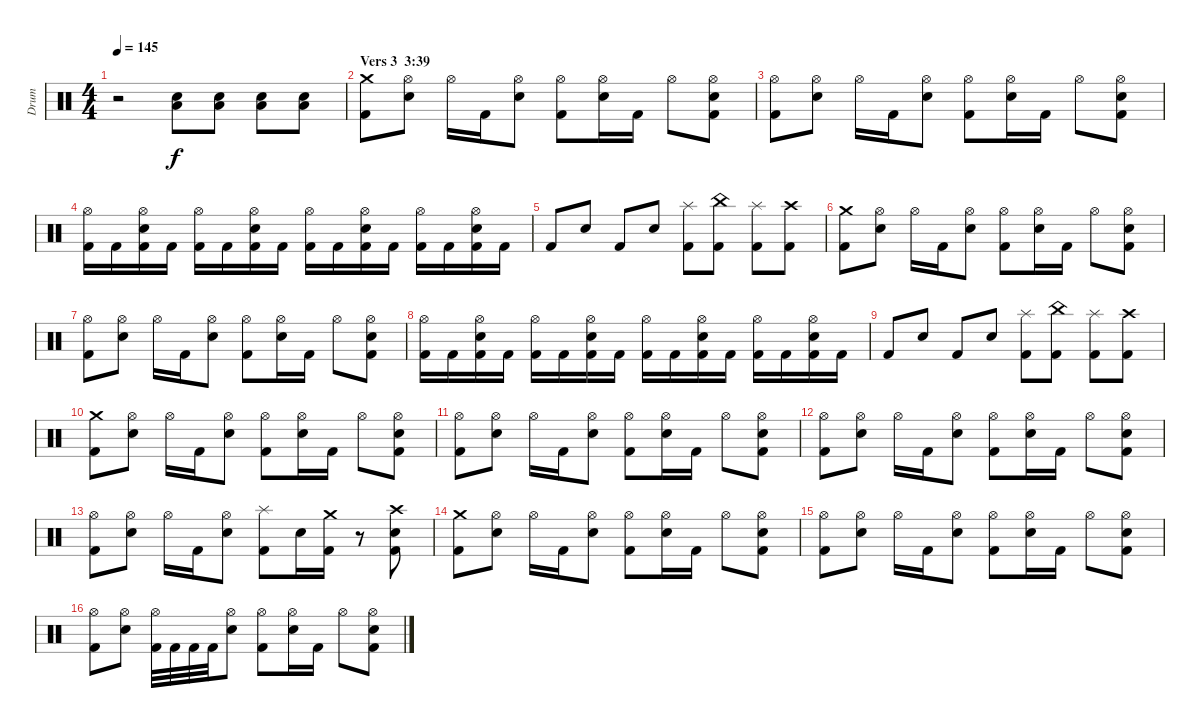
\track ("Drum" "Drum") {instrument percussion}
\staff {score}
\articulation defaults
\ts (4 4)
\tempo 145
\clef neutral
\ks c
r.2{dy f} ("Low Floor Tom (hit)" "Snare (hit) 2").8 ("Low Floor Tom (hit)" "Snare (hit) 2").8 ("Low Floor Tom (hit)" "Snare (hit) 2").8 ("Low Floor Tom (hit)" "Snare (hit) 2").8 |
\section ("" "Vers 3  3:39")
("Crash medium (hit)" "Kick (hit) 2").8 ("Hi-Hat (open)" "Snare (hit) 2").8 "Hi-Hat (open)".16 "Kick (hit) 2".16 ("Hi-Hat (open)" "Snare (hit) 2").8 ("Hi-Hat (open)" "Kick (hit) 2").8 ("Hi-Hat (open)" "Snare (hit) 2").16 "Kick (hit) 2".16 "Hi-Hat (open)".8 ("Hi-Hat (open)" "Snare (hit) 2" "Kick (hit) 2").8 |
("Hi-Hat (open)" "Kick (hit) 2").8 ("Hi-Hat (open)" "Snare (hit) 2").8 "Hi-Hat (open)".16 "Kick (hit) 2".16 ("Hi-Hat (open)" "Snare (hit) 2").8 ("Hi-Hat (open)" "Kick (hit) 2").8 ("Hi-Hat (open)" "Snare (hit) 2").16 "Kick (hit) 2".16 "Hi-Hat (open)".8 ("Hi-Hat (open)" "Snare (hit) 2" "Kick (hit) 2").8 |
("Hi-Hat (open)" "Kick (hit) 2").16 "Kick (hit) 2".16 ("Hi-Hat (open)" "Snare (hit) 2" "Kick (hit) 2").16 "Kick (hit) 2".16 ("Hi-Hat (open)" "Kick (hit) 2").16 "Kick (hit) 2".16 ("Hi-Hat (open)" "Snare (hit) 2" "Kick (hit) 2").16 "Kick (hit) 2".16 ("Hi-Hat (open)" "Kick (hit) 2").16 "Kick (hit) 2".16 ("Hi-Hat (open)" "Snare (hit) 2" "Kick (hit) 2").16 "Kick (hit) 2".16 ("Hi-Hat (open)" "Kick (hit) 2").16 "Kick (hit) 2".16 ("Hi-Hat (open)" "Snare (hit) 2" "Kick (hit) 2").16 "Kick (hit) 2".16 |
"Kick (hit) 2".8 "Snare (hit) 2".8 "Kick (hit) 2".8 "Snare (hit) 2".8 ("Splash (hit)" "Kick (hit) 2").8 ("China (hit)" "Kick (hit) 2").8 ("Splash (hit)" "Kick (hit) 2").8 ("Crash high (hit)" "Kick (hit) 2").8 |
("Crash medium (hit)" "Kick (hit) 2").8 ("Hi-Hat (open)" "Snare (hit) 2").8 "Hi-Hat (open)".16 "Kick (hit) 2".16 ("Hi-Hat (open)" "Snare (hit) 2").8 ("Hi-Hat (open)" "Kick (hit) 2").8 ("Hi-Hat (open)" "Snare (hit) 2").16 "Kick (hit) 2".16 "Hi-Hat (open)".8 ("Hi-Hat (open)" "Snare (hit) 2" "Kick (hit) 2").8 |
("Hi-Hat (open)" "Kick (hit) 2").8 ("Hi-Hat (open)" "Snare (hit) 2").8 "Hi-Hat (open)".16 "Kick (hit) 2".16 ("Hi-Hat (open)" "Snare (hit) 2").8 ("Hi-Hat (open)" "Kick (hit) 2").8 ("Hi-Hat (open)" "Snare (hit) 2").16 "Kick (hit) 2".16 "Hi-Hat (open)".8 ("Hi-Hat (open)" "Snare (hit) 2" "Kick (hit) 2").8 |
("Hi-Hat (open)" "Kick (hit) 2").16 "Kick (hit) 2".16 ("Hi-Hat (open)" "Snare (hit) 2" "Kick (hit) 2").16 "Kick (hit) 2".16 ("Hi-Hat (open)" "Kick (hit) 2").16 "Kick (hit) 2".16 ("Hi-Hat (open)" "Snare (hit) 2" "Kick (hit) 2").16 "Kick (hit) 2".16 ("Hi-Hat (open)" "Kick (hit) 2").16 "Kick (hit) 2".16 ("Hi-Hat (open)" "Snare (hit) 2" "Kick (hit) 2").16 "Kick (hit) 2".16 ("Hi-Hat (open)" "Kick (hit) 2").16 "Kick (hit) 2".16 ("Hi-Hat (open)" "Snare (hit) 2" "Kick (hit) 2").16 "Kick (hit) 2".16 |
"Kick (hit) 2".8 "Snare (hit) 2".8 "Kick (hit) 2".8 "Snare (hit) 2".8 ("Splash (hit)" "Kick (hit) 2").8 ("China (hit)" "Kick (hit) 2").8 ("Splash (hit)" "Kick (hit) 2").8 ("Crash high (hit)" "Kick (hit) 2").8 |
("Crash medium (hit)" "Kick (hit) 2").8 ("Hi-Hat (open)" "Snare (hit) 2").8 "Hi-Hat (open)".16 "Kick (hit) 2".16 ("Hi-Hat (open)" "Snare (hit) 2").8 ("Hi-Hat (open)" "Kick (hit) 2").8 ("Hi-Hat (open)" "Snare (hit) 2").16 "Kick (hit) 2".16 "Hi-Hat (open)".8 ("Hi-Hat (open)" "Snare (hit) 2" "Kick (hit) 2").8 |
("Hi-Hat (open)" "Kick (hit) 2").8 ("Hi-Hat (open)" "Snare (hit) 2").8 "Hi-Hat (open)".16 "Kick (hit) 2".16 ("Hi-Hat (open)" "Snare (hit) 2").8 ("Hi-Hat (open)" "Kick (hit) 2").8 ("Hi-Hat (open)" "Snare (hit) 2").16 "Kick (hit) 2".16 "Hi-Hat (open)".8 ("Hi-Hat (open)" "Snare (hit) 2" "Kick (hit) 2").8 |
("Hi-Hat (open)" "Kick (hit) 2").8 ("Hi-Hat (open)" "Snare (hit) 2").8 "Hi-Hat (open)".16 "Kick (hit) 2".16 ("Hi-Hat (open)" "Snare (hit) 2").8 ("Hi-Hat (open)" "Kick (hit) 2").8 ("Hi-Hat (open)" "Snare (hit) 2").16 "Kick (hit) 2".16 "Hi-Hat (open)".8 ("Hi-Hat (open)" "Snare (hit) 2" "Kick (hit) 2").8 |
("Hi-Hat (open)" "Kick (hit) 2").8 ("Hi-Hat (open)" "Snare (hit) 2").8 "Hi-Hat (open)".16 "Kick (hit) 2".16 ("Hi-Hat (open)" "Snare (hit) 2").8 ("Splash (hit)" "Kick (hit) 2").8 "Snare (hit) 2".16 ("Crash medium (hit)" "Kick (hit) 2").16 r.8 ("Crash high (hit)" "Snare (hit) 2" "Kick (hit) 2").8 |
("Crash medium (hit)" "Kick (hit) 2").8 ("Hi-Hat (open)" "Snare (hit) 2").8 "Hi-Hat (open)".16 "Kick (hit) 2".16 ("Hi-Hat (open)" "Snare (hit) 2").8 ("Hi-Hat (open)" "Kick (hit) 2").8 ("Hi-Hat (open)" "Snare (hit) 2").16 "Kick (hit) 2".16 "Hi-Hat (open)".8 ("Hi-Hat (open)" "Snare (hit) 2" "Kick (hit) 2").8 |
("Hi-Hat (open)" "Kick (hit) 2").8 ("Hi-Hat (open)" "Snare (hit) 2").8 "Hi-Hat (open)".16 "Kick (hit) 2".16 ("Hi-Hat (open)" "Snare (hit) 2").8 ("Hi-Hat (open)" "Kick (hit) 2").8 ("Hi-Hat (open)" "Snare (hit) 2").16 "Kick (hit) 2".16 "Hi-Hat (open)".8 ("Hi-Hat (open)" "Snare (hit) 2" "Kick (hit) 2").8 |
("Hi-Hat (open)" "Kick (hit) 2").8 ("Hi-Hat (open)" "Snare (hit) 2").8 ("Hi-Hat (open)" "Kick (hit) 2").32 "Kick (hit) 2".32 "Kick (hit) 2".32 "Kick (hit) 2".32 ("Hi-Hat (open)" "Snare (hit) 2").8 ("Hi-Hat (open)" "Kick (hit) 2").8 ("Hi-Hat (open)" "Snare (hit) 2").16 "Kick (hit) 2".16 "Hi-Hat (open)".8 ("Hi-Hat (open)" "Snare (hit) 2" "Kick (hit) 2").8
